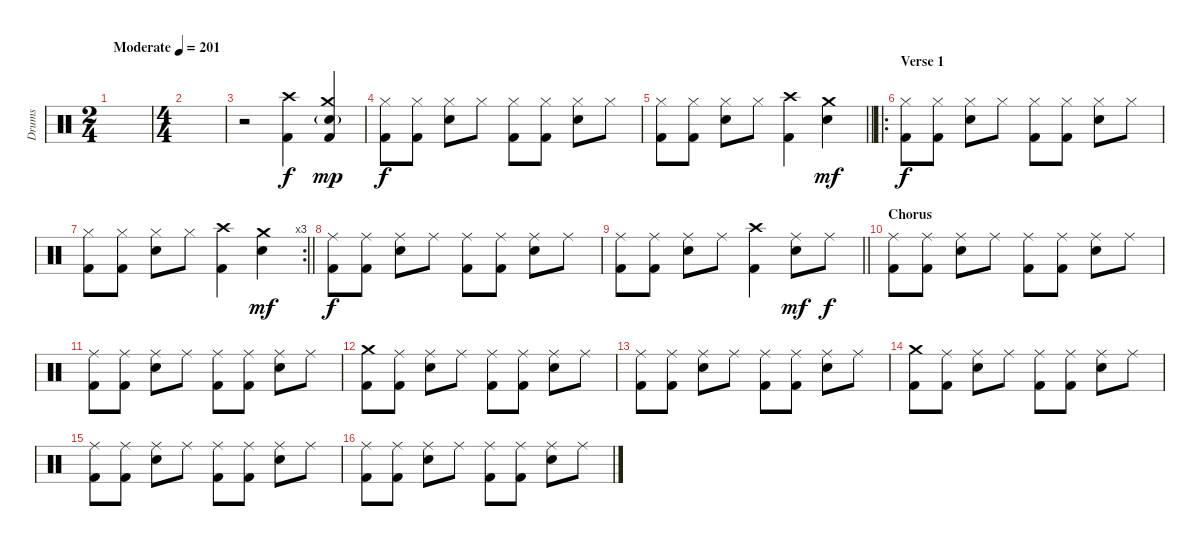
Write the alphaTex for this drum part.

\track ("Drums" "Drums") {instrument percussion}
\staff {score}
\articulation defaults
\ts (2 4)
\tempo (201 "Moderate")
\clef neutral
\ks c
|
\ts (4 4)
|
r.2 ("Crash high (hit)" "Kick (hit) 2").4 ("Crash medium (hit)" "Electric Snare (hit)"{g} "Kick (hit) 2").4{dy mp} |
("Hi-Hat (closed)" "Kick (hit) 2").8{dy f} ("Hi-Hat (closed)" "Kick (hit) 2").8 ("Hi-Hat (closed)" "Electric Snare (hit)").8 "Hi-Hat (closed)".8 ("Hi-Hat (closed)" "Kick (hit) 2").8 ("Hi-Hat (closed)" "Kick (hit) 2").8 ("Hi-Hat (closed)" "Electric Snare (hit)").8 "Hi-Hat (closed)".8 |
\barLineRight lightlight
("Hi-Hat (closed)" "Kick (hit) 2").8 ("Hi-Hat (closed)" "Kick (hit) 2").8 ("Hi-Hat (closed)" "Electric Snare (hit)").8 "Hi-Hat (closed)".8 ("Crash high (hit)" "Kick (hit) 2").4 ("Crash medium (hit)" "Electric Snare (hit)").4{dy mf} |
\ro
\section ("" "Verse 1")
("Hi-Hat (closed)" "Kick (hit) 2").8{dy f} ("Hi-Hat (closed)" "Kick (hit) 2").8 ("Hi-Hat (closed)" "Electric Snare (hit)").8 "Hi-Hat (closed)".8 ("Hi-Hat (closed)" "Kick (hit) 2").8 ("Hi-Hat (closed)" "Kick (hit) 2").8 ("Hi-Hat (closed)" "Electric Snare (hit)").8 "Hi-Hat (closed)".8 |
\rc 3
\barLineRight lightlight
("Hi-Hat (closed)" "Kick (hit) 2").8 ("Hi-Hat (closed)" "Kick (hit) 2").8 ("Hi-Hat (closed)" "Electric Snare (hit)").8 "Hi-Hat (closed)".8 ("Crash high (hit)" "Kick (hit) 2").4 ("Crash medium (hit)" "Electric Snare (hit)").4{dy mf} |
("Ride (middle)" "Kick (hit) 2").8{dy f} ("Ride (middle)" "Kick (hit) 2").8 ("Ride (middle)" "Electric Snare (hit)").8 "Ride (middle)".8 ("Ride (middle)" "Kick (hit) 2").8 ("Ride (middle)" "Kick (hit) 2").8 ("Ride (middle)" "Electric Snare (hit)").8 "Ride (middle)".8 |
\barLineRight lightlight
("Ride (middle)" "Kick (hit) 2").8 ("Ride (middle)" "Kick (hit) 2").8 ("Ride (middle)" "Electric Snare (hit)").8 "Ride (middle)".8 ("Crash high (hit)" "Kick (hit) 2").4 ("Ride (middle)" "Electric Snare (hit)").8{dy mf} "Ride (middle)".8{dy f} |
\section ("" "Chorus")
("Ride (middle)" "Kick (hit) 2").8 ("Ride (middle)" "Kick (hit) 2").8 ("Ride (middle)" "Electric Snare (hit)").8 "Ride (middle)".8 ("Ride (middle)" "Kick (hit) 2").8 ("Ride (middle)" "Kick (hit) 2").8 ("Ride (middle)" "Electric Snare (hit)").8 "Ride (middle)".8 |
("Ride (middle)" "Kick (hit) 2").8 ("Ride (middle)" "Kick (hit) 2").8 ("Ride (middle)" "Electric Snare (hit)").8 "Ride (middle)".8 ("Ride (middle)" "Kick (hit) 2").8 ("Ride (middle)" "Kick (hit) 2").8 ("Ride (middle)" "Electric Snare (hit)").8 "Ride (middle)".8 |
("Crash medium (hit)" "Kick (hit) 2").8 ("Ride (middle)" "Kick (hit) 2").8 ("Ride (middle)" "Electric Snare (hit)").8 "Ride (middle)".8 ("Ride (middle)" "Kick (hit) 2").8 ("Ride (middle)" "Kick (hit) 2").8 ("Ride (middle)" "Electric Snare (hit)").8 "Ride (middle)".8 |
("Ride (middle)" "Kick (hit) 2").8 ("Ride (middle)" "Kick (hit) 2").8 ("Ride (middle)" "Electric Snare (hit)").8 "Ride (middle)".8 ("Ride (middle)" "Kick (hit) 2").8 ("Ride (middle)" "Kick (hit) 2").8 ("Ride (middle)" "Electric Snare (hit)").8 "Ride (middle)".8 |
("Crash medium (hit)" "Kick (hit) 2").8 ("Ride (middle)" "Kick (hit) 2").8 ("Ride (middle)" "Electric Snare (hit)").8 "Ride (middle)".8 ("Ride (middle)" "Kick (hit) 2").8 ("Ride (middle)" "Kick (hit) 2").8 ("Ride (middle)" "Electric Snare (hit)").8 "Ride (middle)".8 |
("Ride (middle)" "Kick (hit) 2").8 ("Ride (middle)" "Kick (hit) 2").8 ("Ride (middle)" "Electric Snare (hit)").8 "Ride (middle)".8 ("Ride (middle)" "Kick (hit) 2").8 ("Ride (middle)" "Kick (hit) 2").8 ("Ride (middle)" "Electric Snare (hit)").8 "Ride (middle)".8 |
("Ride (middle)" "Kick (hit) 2").8 ("Ride (middle)" "Kick (hit) 2").8 ("Ride (middle)" "Electric Snare (hit)").8 "Ride (middle)".8 ("Ride (middle)" "Kick (hit) 2").8 ("Ride (middle)" "Kick (hit) 2").8 ("Ride (middle)" "Electric Snare (hit)").8 "Ride (middle)".8
